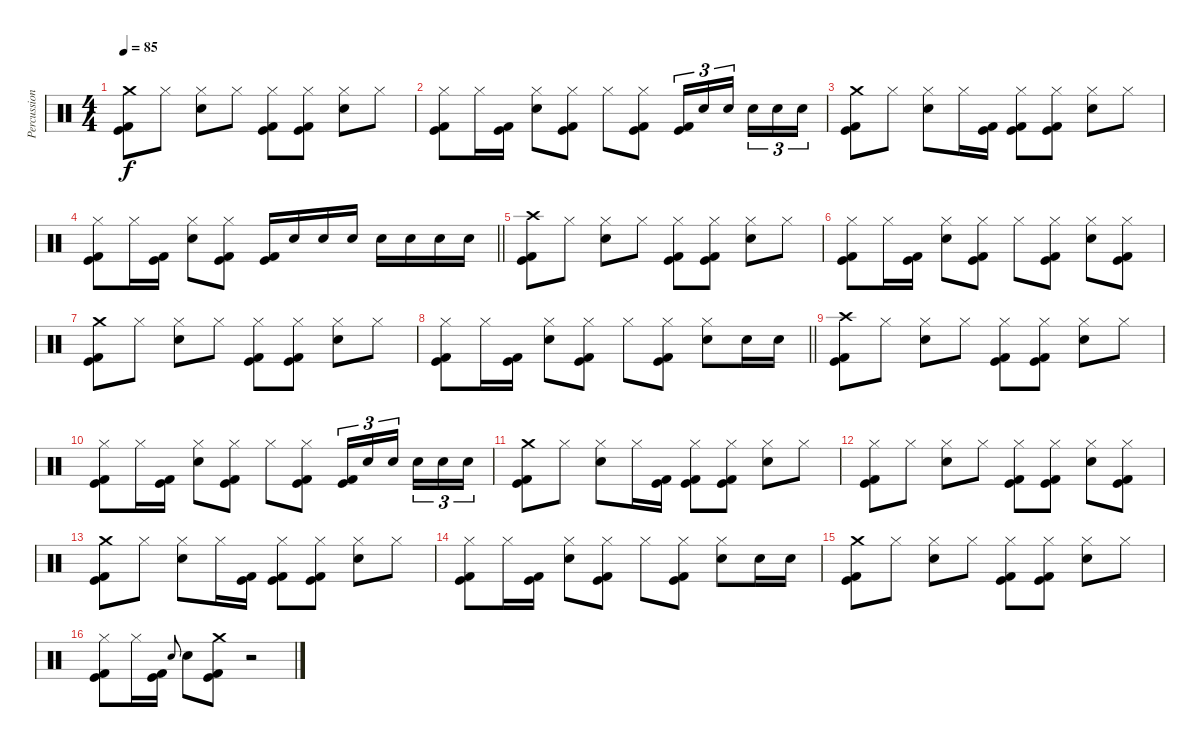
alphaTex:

\track ("Percussion" "Percussion") {instrument percussion}
\staff {score}
\articulation defaults
\ts (4 4)
\tempo 85
\clef neutral
\ks c
("Crash medium (hit)" "Kick (hit)" "Kick (hit) 2").8{dy f} "Hi-Hat (closed)".8 ("Hi-Hat (closed)" "Electric Snare (hit)").8 "Hi-Hat (closed)".8 ("Hi-Hat (closed)" "Kick (hit)" "Kick (hit) 2").8 ("Hi-Hat (closed)" "Kick (hit)" "Kick (hit) 2").8 ("Hi-Hat (closed)" "Electric Snare (hit)").8 "Hi-Hat (closed)".8 |
("Hi-Hat (closed)" "Kick (hit)" "Kick (hit) 2").8 "Hi-Hat (closed)".16 ("Kick (hit)" "Kick (hit) 2").16 ("Hi-Hat (closed)" "Electric Snare (hit)").8 ("Hi-Hat (closed)" "Kick (hit)" "Kick (hit) 2").8 "Hi-Hat (closed)".8 ("Hi-Hat (closed)" "Kick (hit)" "Kick (hit) 2").8 ("Kick (hit)" "Kick (hit) 2").16{tu (3 2)} "Electric Snare (hit)".16{tu (3 2)} "Electric Snare (hit)".16{tu (3 2) beam splitsecondary} "Electric Snare (hit)".16{tu (3 2)} "Electric Snare (hit)".16{tu (3 2)} "Electric Snare (hit)".16{tu (3 2)} |
("Crash medium (hit)" "Kick (hit)" "Kick (hit) 2").8 "Hi-Hat (closed)".8 ("Hi-Hat (closed)" "Electric Snare (hit)").8 "Hi-Hat (closed)".16 ("Kick (hit)" "Kick (hit) 2").16 ("Hi-Hat (closed)" "Kick (hit)" "Kick (hit) 2").8 ("Hi-Hat (closed)" "Kick (hit)" "Kick (hit) 2").8 ("Hi-Hat (closed)" "Electric Snare (hit)").8 "Hi-Hat (closed)".8 |
\barLineRight lightlight
("Hi-Hat (closed)" "Kick (hit)" "Kick (hit) 2").8 "Hi-Hat (closed)".16 ("Kick (hit)" "Kick (hit) 2").16 ("Hi-Hat (closed)" "Electric Snare (hit)").8 ("Hi-Hat (closed)" "Kick (hit)" "Kick (hit) 2").8 ("Kick (hit)" "Kick (hit) 2").16 "Electric Snare (hit)".16 "Electric Snare (hit)".16 "Electric Snare (hit)".16 "Electric Snare (hit)".16 "Electric Snare (hit)".16 "Electric Snare (hit)".16 "Electric Snare (hit)".16 |
\section ("" "")
("Crash high (hit)" "Kick (hit)" "Kick (hit) 2").8 "Hi-Hat (closed)".8 ("Hi-Hat (closed)" "Electric Snare (hit)").8 "Hi-Hat (closed)".8 ("Hi-Hat (closed)" "Kick (hit)" "Kick (hit) 2").8 ("Hi-Hat (closed)" "Kick (hit)" "Kick (hit) 2").8 ("Hi-Hat (closed)" "Electric Snare (hit)").8 "Hi-Hat (closed)".8 |
("Hi-Hat (closed)" "Kick (hit)" "Kick (hit) 2").8 "Hi-Hat (closed)".16 ("Kick (hit)" "Kick (hit) 2").16 ("Hi-Hat (closed)" "Electric Snare (hit)").8 ("Hi-Hat (closed)" "Kick (hit)" "Kick (hit) 2").8 "Hi-Hat (closed)".8 ("Hi-Hat (closed)" "Kick (hit)" "Kick (hit) 2").8 ("Hi-Hat (closed)" "Electric Snare (hit)").8 ("Hi-Hat (closed)" "Kick (hit)" "Kick (hit) 2").8 |
("Crash medium (hit)" "Kick (hit)" "Kick (hit) 2").8 "Hi-Hat (closed)".8 ("Hi-Hat (closed)" "Electric Snare (hit)").8 "Hi-Hat (closed)".8 ("Hi-Hat (closed)" "Kick (hit)" "Kick (hit) 2").8 ("Hi-Hat (closed)" "Kick (hit)" "Kick (hit) 2").8 ("Hi-Hat (closed)" "Electric Snare (hit)").8 "Hi-Hat (closed)".8 |
\barLineRight lightlight
("Hi-Hat (closed)" "Kick (hit)" "Kick (hit) 2").8 "Hi-Hat (closed)".16 ("Kick (hit)" "Kick (hit) 2").16 ("Hi-Hat (closed)" "Electric Snare (hit)").8 ("Hi-Hat (closed)" "Kick (hit)" "Kick (hit) 2").8 "Hi-Hat (closed)".8 ("Hi-Hat (closed)" "Kick (hit)" "Kick (hit) 2").8 ("Hi-Hat (closed)" "Electric Snare (hit)").8 "Electric Snare (hit)".16 "Electric Snare (hit)".16 |
\section ("" "")
("Crash high (hit)" "Kick (hit)" "Kick (hit) 2").8 "Hi-Hat (closed)".8 ("Hi-Hat (closed)" "Electric Snare (hit)").8 "Hi-Hat (closed)".8 ("Hi-Hat (closed)" "Kick (hit)" "Kick (hit) 2").8 ("Hi-Hat (closed)" "Kick (hit)" "Kick (hit) 2").8 ("Hi-Hat (closed)" "Electric Snare (hit)").8 "Hi-Hat (closed)".8 |
("Hi-Hat (closed)" "Kick (hit)" "Kick (hit) 2").8 "Hi-Hat (closed)".16 ("Kick (hit)" "Kick (hit) 2").16 ("Hi-Hat (closed)" "Electric Snare (hit)").8 ("Hi-Hat (closed)" "Kick (hit)" "Kick (hit) 2").8 "Hi-Hat (closed)".8 ("Hi-Hat (closed)" "Kick (hit)" "Kick (hit) 2").8 ("Kick (hit)" "Kick (hit) 2").16{tu (3 2)} "Electric Snare (hit)".16{tu (3 2)} "Electric Snare (hit)".16{tu (3 2) beam splitsecondary} "Electric Snare (hit)".16{tu (3 2)} "Electric Snare (hit)".16{tu (3 2)} "Electric Snare (hit)".16{tu (3 2)} |
("Crash medium (hit)" "Kick (hit)" "Kick (hit) 2").8 "Hi-Hat (closed)".8 ("Hi-Hat (closed)" "Electric Snare (hit)").8 "Hi-Hat (closed)".16 ("Kick (hit)" "Kick (hit) 2").16 ("Hi-Hat (closed)" "Kick (hit)" "Kick (hit) 2").8 ("Hi-Hat (closed)" "Kick (hit)" "Kick (hit) 2").8 ("Hi-Hat (closed)" "Electric Snare (hit)").8 "Hi-Hat (closed)".8 |
("Hi-Hat (closed)" "Kick (hit)" "Kick (hit) 2").8 "Hi-Hat (closed)".8 ("Hi-Hat (closed)" "Electric Snare (hit)").8 "Hi-Hat (closed)".8 ("Hi-Hat (closed)" "Kick (hit)" "Kick (hit) 2").8 ("Hi-Hat (closed)" "Kick (hit)" "Kick (hit) 2").8 ("Hi-Hat (closed)" "Electric Snare (hit)").8 ("Hi-Hat (closed)" "Kick (hit)" "Kick (hit) 2").8 |
("Crash medium (hit)" "Kick (hit)" "Kick (hit) 2").8 "Hi-Hat (closed)".8 ("Hi-Hat (closed)" "Electric Snare (hit)").8 "Hi-Hat (closed)".16 ("Kick (hit)" "Kick (hit) 2").16 ("Hi-Hat (closed)" "Kick (hit)" "Kick (hit) 2").8 ("Hi-Hat (closed)" "Kick (hit)" "Kick (hit) 2").8 ("Hi-Hat (closed)" "Electric Snare (hit)").8 "Hi-Hat (closed)".8 |
("Hi-Hat (closed)" "Kick (hit)" "Kick (hit) 2").8 "Hi-Hat (closed)".16 ("Kick (hit)" "Kick (hit) 2").16 ("Hi-Hat (closed)" "Electric Snare (hit)").8 ("Hi-Hat (closed)" "Kick (hit)" "Kick (hit) 2").8 "Hi-Hat (closed)".8 ("Hi-Hat (closed)" "Kick (hit)" "Kick (hit) 2").8 ("Hi-Hat (closed)" "Electric Snare (hit)").8 "Electric Snare (hit)".16 "Electric Snare (hit)".16 |
("Crash medium (hit)" "Kick (hit)" "Kick (hit) 2").8 "Hi-Hat (closed)".8 ("Hi-Hat (closed)" "Electric Snare (hit)").8 "Hi-Hat (closed)".8 ("Hi-Hat (closed)" "Kick (hit)" "Kick (hit) 2").8 ("Hi-Hat (closed)" "Kick (hit)" "Kick (hit) 2").8 ("Hi-Hat (closed)" "Electric Snare (hit)").8 "Hi-Hat (closed)".8 |
("Hi-Hat (closed)" "Kick (hit)" "Kick (hit) 2").8 "Hi-Hat (closed)".16 ("Kick (hit)" "Kick (hit) 2").16 "Electric Snare (hit)".8{gr onbeat} "Electric Snare (hit)".8 ("Crash medium (hit)" "Kick (hit)" "Kick (hit) 2").8 r.2
